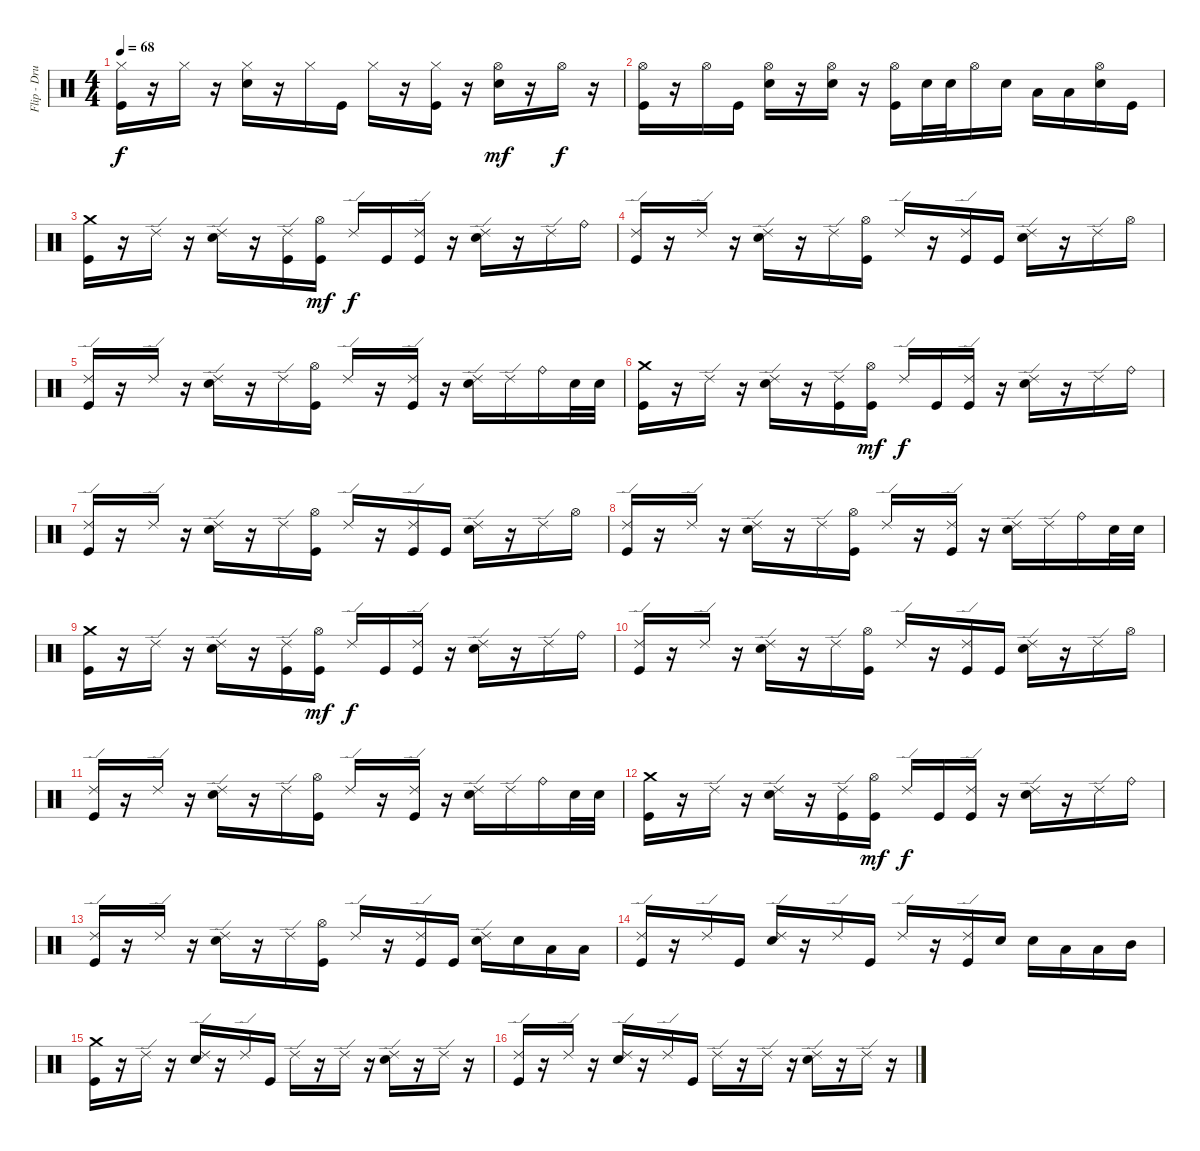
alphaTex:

\track ("Flip - Drums" "Flip - Dru") {instrument percussion}
\staff {score}
\articulation defaults
\ts (4 4)
\tempo 68
\clef neutral
\ks c
("Hi-Hat (closed)" "Kick (hit)").16{dy f} r.16 "Hi-Hat (closed)".16 r.16 ("Hi-Hat (closed)" "Snare (hit) 2").16 r.16 "Hi-Hat (closed)".16 "Kick (hit)".16 "Hi-Hat (closed)".16 r.16 ("Hi-Hat (closed)" "Kick (hit)").16 r.16 ("Hi-Hat (open)" "Snare (hit) 2").16{dy mf} r.16 "Hi-Hat (open)".16{dy f} r.16 |
("Hi-Hat (open)" "Kick (hit)").16 r.16 "Hi-Hat (open)".16 "Kick (hit)".16 ("Hi-Hat (open)" "Snare (hit) 2").16 r.16 ("Hi-Hat (open)" "Snare (hit) 2").16 r.16 ("Hi-Hat (open)" "Kick (hit)").16 "Snare (hit) 2".32 "Snare (hit) 2".32 "Hi-Hat (open)".16 "Snare (hit) 2".16 "Low Tom (hit)".16 "Low Tom (hit)".16 ("Hi-Hat (open)" "Snare (hit) 2").16 "Kick (hit)".16 |
("Crash medium (hit)" "Kick (hit)").16 r.16 "Ride (edge) 2".16 r.16 ("Ride (edge) 2" "Snare (hit) 2").16 r.16 ("Ride (edge) 2" "Kick (hit)").16 ("Hi-Hat (open)" "Kick (hit)").16{dy mf} "Ride (edge) 2".16{dy f} "Kick (hit)".16 ("Ride (edge) 2" "Kick (hit)").16 r.16 ("Ride (edge) 2" "Snare (hit) 2").16 r.16 "Ride (edge) 2".16 "Ride (bell)".16 |
("Ride (edge) 2" "Kick (hit)").16 r.16 "Ride (edge) 2".16 r.16 ("Ride (edge) 2" "Snare (hit) 2").16 r.16 "Ride (edge) 2".16 ("Hi-Hat (open)" "Kick (hit)").16 "Ride (edge) 2".16 r.16 ("Ride (edge) 2" "Kick (hit)").16 "Kick (hit)".16 ("Ride (edge) 2" "Snare (hit) 2").16 r.16 "Ride (edge) 2".16 "Hi-Hat (open)".16 |
("Ride (edge) 2" "Kick (hit)").16 r.16 "Ride (edge) 2".16 r.16 ("Ride (edge) 2" "Snare (hit) 2").16 r.16 "Ride (edge) 2".16 ("Hi-Hat (open)" "Kick (hit)").16 "Ride (edge) 2".16 r.16 ("Ride (edge) 2" "Kick (hit)").16 r.16 ("Ride (edge) 2" "Snare (hit) 2").16 "Ride (edge) 2".16 "Ride (bell)".16 "Snare (hit) 2".32 "Snare (hit) 2".32 |
("Crash medium (hit)" "Kick (hit)").16 r.16 "Ride (edge) 2".16 r.16 ("Ride (edge) 2" "Snare (hit) 2").16 r.16 ("Ride (edge) 2" "Kick (hit)").16 ("Hi-Hat (open)" "Kick (hit)").16{dy mf} "Ride (edge) 2".16{dy f} "Kick (hit)".16 ("Ride (edge) 2" "Kick (hit)").16 r.16 ("Ride (edge) 2" "Snare (hit) 2").16 r.16 "Ride (edge) 2".16 "Ride (bell)".16 |
("Ride (edge) 2" "Kick (hit)").16 r.16 "Ride (edge) 2".16 r.16 ("Ride (edge) 2" "Snare (hit) 2").16 r.16 "Ride (edge) 2".16 ("Hi-Hat (open)" "Kick (hit)").16 "Ride (edge) 2".16 r.16 ("Ride (edge) 2" "Kick (hit)").16 "Kick (hit)".16 ("Ride (edge) 2" "Snare (hit) 2").16 r.16 "Ride (edge) 2".16 "Hi-Hat (open)".16 |
("Ride (edge) 2" "Kick (hit)").16 r.16 "Ride (edge) 2".16 r.16 ("Ride (edge) 2" "Snare (hit) 2").16 r.16 "Ride (edge) 2".16 ("Hi-Hat (open)" "Kick (hit)").16 "Ride (edge) 2".16 r.16 ("Ride (edge) 2" "Kick (hit)").16 r.16 ("Ride (edge) 2" "Snare (hit) 2").16 "Ride (edge) 2".16 "Ride (bell)".16 "Snare (hit) 2".32 "Snare (hit) 2".32 |
("Crash medium (hit)" "Kick (hit)").16 r.16 "Ride (edge) 2".16 r.16 ("Ride (edge) 2" "Snare (hit) 2").16 r.16 ("Ride (edge) 2" "Kick (hit)").16 ("Hi-Hat (open)" "Kick (hit)").16{dy mf} "Ride (edge) 2".16{dy f} "Kick (hit)".16 ("Ride (edge) 2" "Kick (hit)").16 r.16 ("Ride (edge) 2" "Snare (hit) 2").16 r.16 "Ride (edge) 2".16 "Ride (bell)".16 |
("Ride (edge) 2" "Kick (hit)").16 r.16 "Ride (edge) 2".16 r.16 ("Ride (edge) 2" "Snare (hit) 2").16 r.16 "Ride (edge) 2".16 ("Hi-Hat (open)" "Kick (hit)").16 "Ride (edge) 2".16 r.16 ("Ride (edge) 2" "Kick (hit)").16 "Kick (hit)".16 ("Ride (edge) 2" "Snare (hit) 2").16 r.16 "Ride (edge) 2".16 "Hi-Hat (open)".16 |
("Ride (edge) 2" "Kick (hit)").16 r.16 "Ride (edge) 2".16 r.16 ("Ride (edge) 2" "Snare (hit) 2").16 r.16 "Ride (edge) 2".16 ("Hi-Hat (open)" "Kick (hit)").16 "Ride (edge) 2".16 r.16 ("Ride (edge) 2" "Kick (hit)").16 r.16 ("Ride (edge) 2" "Snare (hit) 2").16 "Ride (edge) 2".16 "Ride (bell)".16 "Snare (hit) 2".32 "Snare (hit) 2".32 |
("Crash medium (hit)" "Kick (hit)").16 r.16 "Ride (edge) 2".16 r.16 ("Ride (edge) 2" "Snare (hit) 2").16 r.16 ("Ride (edge) 2" "Kick (hit)").16 ("Hi-Hat (open)" "Kick (hit)").16{dy mf} "Ride (edge) 2".16{dy f} "Kick (hit)".16 ("Ride (edge) 2" "Kick (hit)").16 r.16 ("Ride (edge) 2" "Snare (hit) 2").16 r.16 "Ride (edge) 2".16 "Ride (bell)".16 |
("Ride (edge) 2" "Kick (hit)").16 r.16 "Ride (edge) 2".16 r.16 ("Ride (edge) 2" "Snare (hit) 2").16 r.16 "Ride (edge) 2".16 ("Hi-Hat (open)" "Kick (hit)").16 "Ride (edge) 2".16 r.16 ("Ride (edge) 2" "Kick (hit)").16 "Kick (hit)".16 ("Ride (edge) 2" "Snare (hit) 2").16 "Snare (hit) 2".16 "Low Tom (hit)".16 "Low Tom (hit)".16 |
("Ride (edge) 2" "Kick (hit)").16 r.16 "Ride (edge) 2".16 "Kick (hit)".16 ("Ride (edge) 2" "Snare (hit) 2").16 r.16 "Ride (edge) 2".16 "Kick (hit)".16 "Ride (edge) 2".16 r.16 ("Ride (edge) 2" "Kick (hit)").16 "Snare (hit) 2".16 "Snare (hit) 2".16 "Low Tom (hit)".16 "Low Tom (hit)".16 "Mid Tom (hit)".16 |
("Crash medium (hit)" "Kick (hit)").16 r.16 "Ride (edge) 2".16 r.16 ("Ride (edge) 2" "Snare (hit) 2").16 r.16 "Ride (edge) 2".16 "Kick (hit)".16 "Ride (edge) 2".16 r.16 "Ride (edge) 2".16 r.16 ("Ride (edge) 2" "Snare (hit) 2").16 r.16 "Ride (edge) 2".16 r.16 |
("Ride (edge) 2" "Kick (hit)").16 r.16 "Ride (edge) 2".16 r.16 ("Ride (edge) 2" "Snare (hit) 2").16 r.16 "Ride (edge) 2".16 "Kick (hit)".16 "Ride (edge) 2".16 r.16 "Ride (edge) 2".16 r.16 ("Ride (edge) 2" "Snare (hit) 2").16 r.16 "Ride (edge) 2".16 r.16
